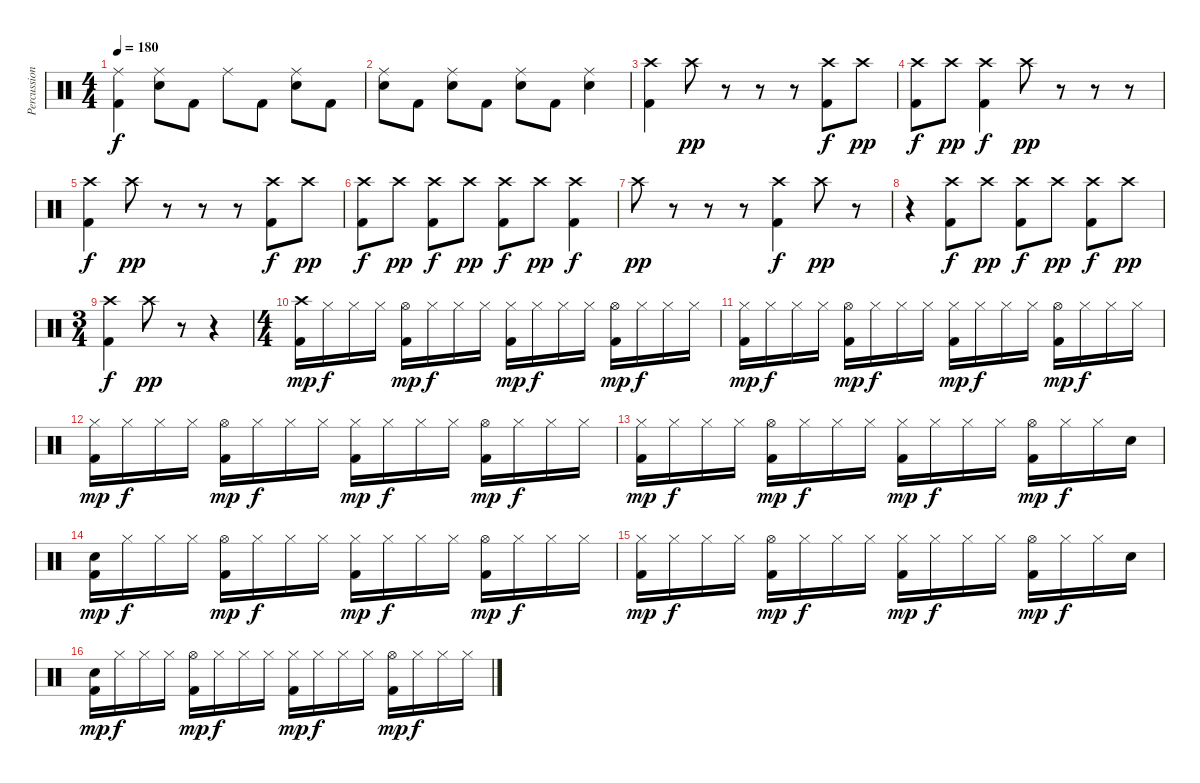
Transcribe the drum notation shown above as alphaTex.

\track ("Percussion" "Percussion") {instrument percussion}
\staff {score}
\articulation defaults
\ts (4 4)
\tempo 180
\clef neutral
\ks c
("Ride (middle)" "Kick (hit) 2").4{dy f} ("Ride (middle)" "Electric Snare (hit)").8 "Kick (hit) 2".8 "Ride (middle)".8 "Kick (hit) 2".8 ("Ride (middle)" "Electric Snare (hit)").8 "Kick (hit) 2".8 |
("Ride (middle)" "Electric Snare (hit)").8 "Kick (hit) 2".8 ("Ride (middle)" "Electric Snare (hit)").8 "Kick (hit) 2".8 ("Ride (middle)" "Electric Snare (hit)").8 "Kick (hit) 2".8 ("Ride (middle)" "Electric Snare (hit)").4 |
("Crash high (hit)" "Kick (hit) 2").4 "Crash high (hit)".8{dy pp} r.8 r.8 r.8 ("Crash high (hit)" "Kick (hit) 2").8{dy f} "Crash high (hit)".8{dy pp} |
("Crash high (hit)" "Kick (hit) 2").8{dy f} "Crash high (hit)".8{dy pp} ("Crash high (hit)" "Kick (hit) 2").4{dy f} "Crash high (hit)".8{dy pp} r.8 r.8 r.8 |
("Crash high (hit)" "Kick (hit) 2").4{dy f} "Crash high (hit)".8{dy pp} r.8 r.8 r.8 ("Crash high (hit)" "Kick (hit) 2").8{dy f} "Crash high (hit)".8{dy pp} |
("Crash high (hit)" "Kick (hit) 2").8{dy f} "Crash high (hit)".8{dy pp} ("Crash high (hit)" "Kick (hit) 2").8{dy f} "Crash high (hit)".8{dy pp} ("Crash high (hit)" "Kick (hit) 2").8{dy f} "Crash high (hit)".8{dy pp} ("Crash high (hit)" "Kick (hit) 2").4{dy f} |
"Crash high (hit)".8{dy pp} r.8 r.8 r.8 ("Crash high (hit)" "Kick (hit) 2").4{dy f} "Crash high (hit)".8{dy pp} r.8 |
r.4 ("Crash high (hit)" "Kick (hit) 2").8{dy f} "Crash high (hit)".8{dy pp} ("Crash high (hit)" "Kick (hit) 2").8{dy f} "Crash high (hit)".8{dy pp} ("Crash high (hit)" "Kick (hit) 2").8{dy f} "Crash high (hit)".8{dy pp} |
\ts (3 4)
("Crash high (hit)" "Kick (hit) 2").4{dy f} "Crash high (hit)".8{dy pp} r.8 r.4 |
\ts (4 4)
("Crash high (hit)" "Kick (hit) 2").16{dy mp volume 12} "Hi-Hat (closed)".16{dy f} "Hi-Hat (closed)".16 "Hi-Hat (closed)".16 ("Hi-Hat (open)" "Kick (hit) 2").16{dy mp} "Hi-Hat (closed)".16{dy f} "Hi-Hat (closed)".16 "Hi-Hat (closed)".16 ("Hi-Hat (closed)" "Kick (hit) 2").16{dy mp} "Hi-Hat (closed)".16{dy f} "Hi-Hat (closed)".16 "Hi-Hat (closed)".16 ("Hi-Hat (open)" "Kick (hit) 2").16{dy mp} "Hi-Hat (closed)".16{dy f} "Hi-Hat (closed)".16 "Hi-Hat (closed)".16 |
("Hi-Hat (closed)" "Kick (hit) 2").16{dy mp} "Hi-Hat (closed)".16{dy f} "Hi-Hat (closed)".16 "Hi-Hat (closed)".16 ("Hi-Hat (open)" "Kick (hit) 2").16{dy mp} "Hi-Hat (closed)".16{dy f} "Hi-Hat (closed)".16 "Hi-Hat (closed)".16 ("Hi-Hat (closed)" "Kick (hit) 2").16{dy mp} "Hi-Hat (closed)".16{dy f} "Hi-Hat (closed)".16 "Hi-Hat (closed)".16 ("Hi-Hat (open)" "Kick (hit) 2").16{dy mp} "Hi-Hat (closed)".16{dy f} "Hi-Hat (closed)".16 "Hi-Hat (closed)".16 |
("Hi-Hat (closed)" "Kick (hit) 2").16{dy mp} "Hi-Hat (closed)".16{dy f} "Hi-Hat (closed)".16 "Hi-Hat (closed)".16 ("Hi-Hat (open)" "Kick (hit) 2").16{dy mp} "Hi-Hat (closed)".16{dy f} "Hi-Hat (closed)".16 "Hi-Hat (closed)".16 ("Hi-Hat (closed)" "Kick (hit) 2").16{dy mp} "Hi-Hat (closed)".16{dy f} "Hi-Hat (closed)".16 "Hi-Hat (closed)".16 ("Hi-Hat (open)" "Kick (hit) 2").16{dy mp} "Hi-Hat (closed)".16{dy f} "Hi-Hat (closed)".16 "Hi-Hat (closed)".16 |
("Hi-Hat (closed)" "Kick (hit) 2").16{dy mp} "Hi-Hat (closed)".16{dy f} "Hi-Hat (closed)".16 "Hi-Hat (closed)".16 ("Hi-Hat (open)" "Kick (hit) 2").16{dy mp} "Hi-Hat (closed)".16{dy f} "Hi-Hat (closed)".16 "Hi-Hat (closed)".16 ("Hi-Hat (closed)" "Kick (hit) 2").16{dy mp} "Hi-Hat (closed)".16{dy f} "Hi-Hat (closed)".16 "Hi-Hat (closed)".16 ("Hi-Hat (open)" "Kick (hit) 2").16{dy mp} "Hi-Hat (closed)".16{dy f} "Hi-Hat (closed)".16 "Electric Snare (hit)".16 |
("Electric Snare (hit)" "Kick (hit) 2").16{dy mp} "Hi-Hat (closed)".16{dy f} "Hi-Hat (closed)".16 "Hi-Hat (closed)".16 ("Hi-Hat (open)" "Kick (hit) 2").16{dy mp} "Hi-Hat (closed)".16{dy f} "Hi-Hat (closed)".16 "Hi-Hat (closed)".16 ("Hi-Hat (closed)" "Kick (hit) 2").16{dy mp} "Hi-Hat (closed)".16{dy f} "Hi-Hat (closed)".16 "Hi-Hat (closed)".16 ("Hi-Hat (open)" "Kick (hit) 2").16{dy mp} "Hi-Hat (closed)".16{dy f} "Hi-Hat (closed)".16 "Hi-Hat (closed)".16 |
("Hi-Hat (closed)" "Kick (hit) 2").16{dy mp} "Hi-Hat (closed)".16{dy f} "Hi-Hat (closed)".16 "Hi-Hat (closed)".16 ("Hi-Hat (open)" "Kick (hit) 2").16{dy mp} "Hi-Hat (closed)".16{dy f} "Hi-Hat (closed)".16 "Hi-Hat (closed)".16 ("Hi-Hat (closed)" "Kick (hit) 2").16{dy mp} "Hi-Hat (closed)".16{dy f} "Hi-Hat (closed)".16 "Hi-Hat (closed)".16 ("Hi-Hat (open)" "Kick (hit) 2").16{dy mp} "Hi-Hat (closed)".16{dy f} "Hi-Hat (closed)".16 "Electric Snare (hit)".16 |
("Electric Snare (hit)" "Kick (hit) 2").16{dy mp} "Hi-Hat (closed)".16{dy f} "Hi-Hat (closed)".16 "Hi-Hat (closed)".16 ("Hi-Hat (open)" "Kick (hit) 2").16{dy mp} "Hi-Hat (closed)".16{dy f} "Hi-Hat (closed)".16 "Hi-Hat (closed)".16 ("Hi-Hat (closed)" "Kick (hit) 2").16{dy mp} "Hi-Hat (closed)".16{dy f} "Hi-Hat (closed)".16 "Hi-Hat (closed)".16 ("Hi-Hat (open)" "Kick (hit) 2").16{dy mp} "Hi-Hat (closed)".16{dy f} "Hi-Hat (closed)".16 "Hi-Hat (closed)".16
